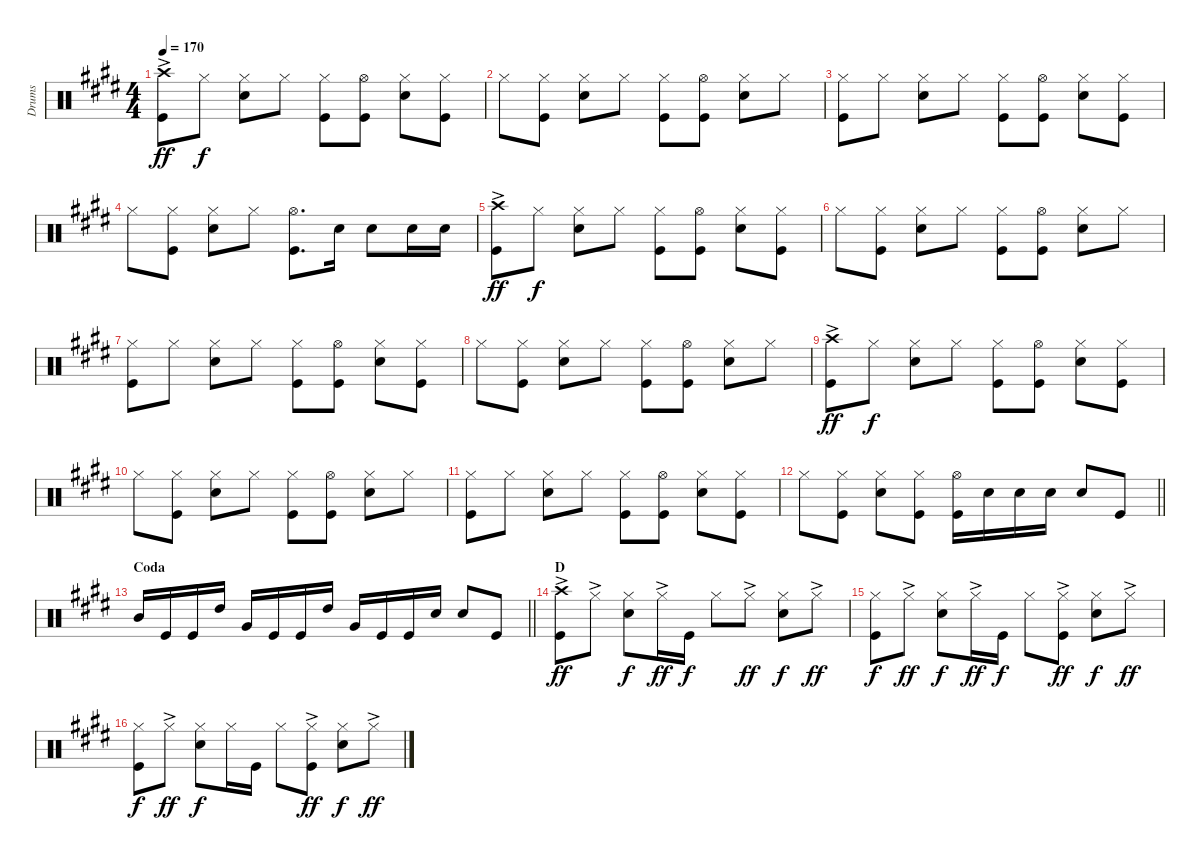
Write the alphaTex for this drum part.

\track ("Drums" "Drums") {instrument percussion}
\staff {score}
\articulation defaults
\ts (4 4)
\tempo 170
\clef neutral
\ks e
("Crash high (hit)"{ac} "Kick (hit)").8{dy ff} "Hi-Hat (closed)".8{dy f} ("Hi-Hat (closed)" "Snare (hit) 2").8 "Hi-Hat (closed)".8 ("Hi-Hat (closed)" "Kick (hit)").8 ("Kick (hit)" "Hi-Hat (open)").8 ("Hi-Hat (closed)" "Snare (hit) 2").8 ("Hi-Hat (closed)" "Kick (hit)").8 |
"Hi-Hat (closed)".8 ("Hi-Hat (closed)" "Kick (hit)").8 ("Hi-Hat (closed)" "Snare (hit) 2").8 "Hi-Hat (closed)".8 ("Kick (hit)" "Hi-Hat (closed)").8 ("Hi-Hat (open)" "Kick (hit)").8 ("Snare (hit) 2" "Hi-Hat (closed)").8 "Hi-Hat (closed)".8 |
("Kick (hit)" "Hi-Hat (closed)").8 "Hi-Hat (closed)".8 ("Hi-Hat (closed)" "Snare (hit) 2").8 "Hi-Hat (closed)".8 ("Kick (hit)" "Hi-Hat (closed)").8 ("Kick (hit)" "Hi-Hat (open)").8 ("Hi-Hat (closed)" "Snare (hit) 2").8 ("Hi-Hat (closed)" "Kick (hit)").8 |
"Hi-Hat (closed)".8 ("Kick (hit)" "Hi-Hat (closed)").8 ("Hi-Hat (closed)" "Snare (hit) 2").8 "Hi-Hat (closed)".8 ("Hi-Hat (open)" "Kick (hit)").8{d} "Snare (hit) 2".16 "Snare (hit) 2".8 "Snare (hit) 2".16 "Snare (hit) 2".16 |
("Crash high (hit)"{ac} "Kick (hit)").8{dy ff} "Hi-Hat (closed)".8{dy f} ("Hi-Hat (closed)" "Snare (hit) 2").8 "Hi-Hat (closed)".8 ("Kick (hit)" "Hi-Hat (closed)").8 ("Hi-Hat (open)" "Kick (hit)").8 ("Snare (hit) 2" "Hi-Hat (closed)").8 ("Hi-Hat (closed)" "Kick (hit)").8 |
"Hi-Hat (closed)".8 ("Hi-Hat (closed)" "Kick (hit)").8 ("Hi-Hat (closed)" "Snare (hit) 2").8 "Hi-Hat (closed)".8 ("Kick (hit)" "Hi-Hat (closed)").8 ("Hi-Hat (open)" "Kick (hit)").8 ("Snare (hit) 2" "Hi-Hat (closed)").8 "Hi-Hat (closed)".8 |
("Hi-Hat (closed)" "Kick (hit)").8 "Hi-Hat (closed)".8 ("Hi-Hat (closed)" "Snare (hit) 2").8 "Hi-Hat (closed)".8 ("Hi-Hat (closed)" "Kick (hit)").8 ("Kick (hit)" "Hi-Hat (open)").8 ("Hi-Hat (closed)" "Snare (hit) 2").8 ("Hi-Hat (closed)" "Kick (hit)").8 |
"Hi-Hat (closed)".8 ("Hi-Hat (closed)" "Kick (hit)").8 ("Hi-Hat (closed)" "Snare (hit) 2").8 "Hi-Hat (closed)".8 ("Kick (hit)" "Hi-Hat (closed)").8 ("Hi-Hat (open)" "Kick (hit)").8 ("Snare (hit) 2" "Hi-Hat (closed)").8 "Hi-Hat (closed)".8 |
("Crash high (hit)"{ac} "Kick (hit)").8{dy ff} "Hi-Hat (closed)".8{dy f} ("Hi-Hat (closed)" "Snare (hit) 2").8 "Hi-Hat (closed)".8 ("Hi-Hat (closed)" "Kick (hit)").8 ("Kick (hit)" "Hi-Hat (open)").8 ("Hi-Hat (closed)" "Snare (hit) 2").8 ("Hi-Hat (closed)" "Kick (hit)").8 |
"Hi-Hat (closed)".8 ("Hi-Hat (closed)" "Kick (hit)").8 ("Hi-Hat (closed)" "Snare (hit) 2").8 "Hi-Hat (closed)".8 ("Kick (hit)" "Hi-Hat (closed)").8 ("Hi-Hat (open)" "Kick (hit)").8 ("Snare (hit) 2" "Hi-Hat (closed)").8 "Hi-Hat (closed)".8 |
("Kick (hit)" "Hi-Hat (closed)").8 "Hi-Hat (closed)".8 ("Snare (hit) 2" "Hi-Hat (closed)").8 "Hi-Hat (closed)".8 ("Hi-Hat (closed)" "Kick (hit)").8 ("Kick (hit)" "Hi-Hat (open)").8 ("Hi-Hat (closed)" "Snare (hit) 2").8 ("Hi-Hat (closed)" "Kick (hit)").8 |
\barLineRight lightlight "Hi-Hat (closed)".8
("Hi-Hat (closed)" "Kick (hit)").8 ("Hi-Hat (closed)" "Snare (hit) 2").8 ("Hi-Hat (closed)" "Kick (hit)").8 ("Hi-Hat (open)" "Kick (hit)").16 "Snare (hit) 2".16 "Snare (hit) 2".16 "Snare (hit) 2".16 "Snare (hit) 2".8 "Kick (hit)".8 |
\section ("" "Coda")
\barLineRight lightlight "Mid Tom (hit)".16 "Kick (hit)".16 "Kick (hit)".16 "High Tom (hit)".16 "Very Low Tom (hit)".16 "Kick (hit)".16 "Kick (hit)".16 "High Tom (hit)".16 "Very Low Tom (hit)".16 "Kick (hit)".16 "Kick (hit)".16 "Snare (hit) 2".16 "Snare (hit) 2".8 "Kick (hit)".8
|
\section ("" "D")
("Crash high (hit)"{ac} "Kick (hit)").8{dy ff} "Hi-Hat (closed)"{ac}.8 ("Hi-Hat (closed)" "Snare (hit) 2").8{dy f} "Hi-Hat (closed)"{ac}.16{dy ff} "Kick (hit)".16{dy f} "Hi-Hat (closed)".8 "Hi-Hat (closed)"{ac}.8{dy ff} ("Hi-Hat (closed)" "Snare (hit) 2").8{dy f} "Hi-Hat (closed)"{ac}.8{dy ff} |
("Kick (hit)" "Hi-Hat (closed)").8{dy f} "Hi-Hat (closed)"{ac}.8{dy ff} ("Hi-Hat (closed)" "Snare (hit) 2").8{dy f} "Hi-Hat (closed)"{ac}.16{dy ff} "Kick (hit)".16{dy f} "Hi-Hat (closed)".8 ("Kick (hit)" "Hi-Hat (closed)"{ac}).8{dy ff} ("Hi-Hat (closed)" "Snare (hit) 2").8{dy f} "Hi-Hat (closed)"{ac}.8{dy ff} |
("Hi-Hat (closed)" "Kick (hit)").8{dy f} "Hi-Hat (closed)"{ac}.8{dy ff} ("Hi-Hat (closed)" "Snare (hit) 2").8{dy f} "Hi-Hat (closed)".16 "Kick (hit)".16 "Hi-Hat (closed)".8 ("Hi-Hat (closed)"{ac} "Kick (hit)").8{dy ff} ("Hi-Hat (closed)" "Snare (hit) 2").8{dy f} "Hi-Hat (closed)"{ac}.8{dy ff}
